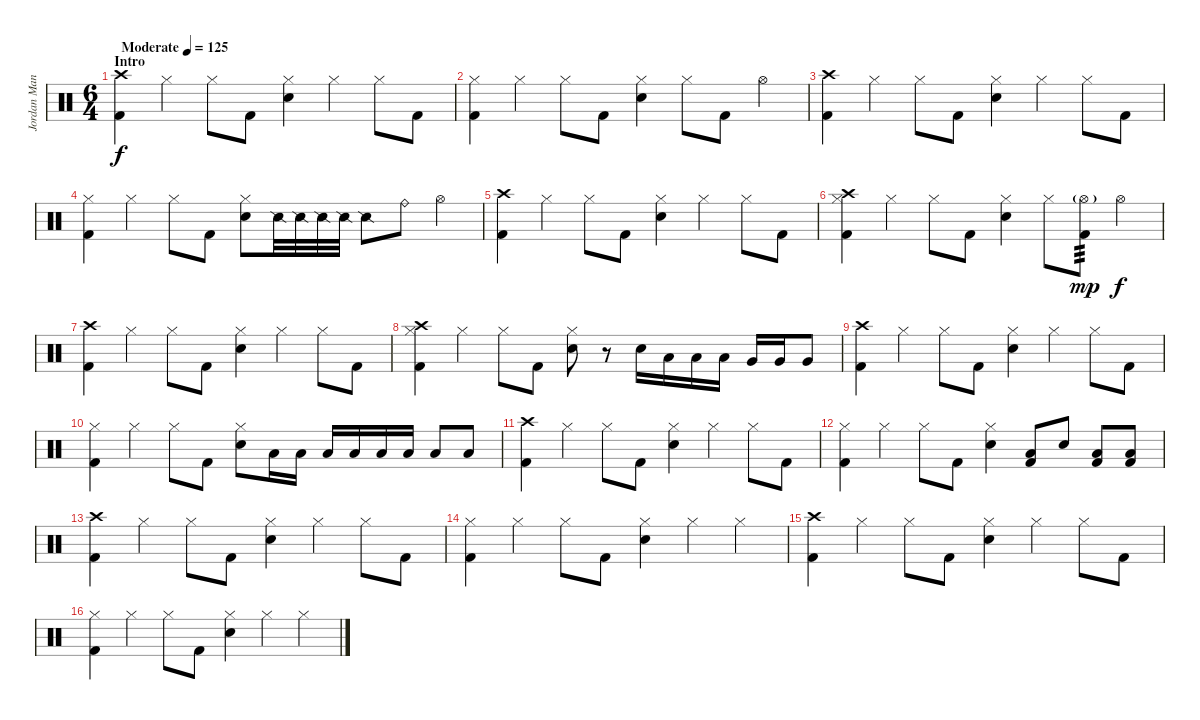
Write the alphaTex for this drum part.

\track ("Jordan Mancino" "Jordan Man") {instrument percussion}
\staff {score}
\articulation defaults
\ts (6 4)
\section ("" "Intro")
\tempo (125 "Moderate")
\clef neutral
\ks c
("Crash high (hit)" "Kick (hit) 2").4{dy f} "Hi-Hat (closed)".4 "Hi-Hat (closed)".8 "Kick (hit) 2".8 ("Hi-Hat (closed)" "Electric Snare (hit)").4 "Hi-Hat (closed)".4 "Hi-Hat (closed)".8 "Kick (hit) 2".8 |
("Hi-Hat (closed)" "Kick (hit) 2").4 "Hi-Hat (closed)".4 "Hi-Hat (closed)".8 "Kick (hit) 2".8 ("Hi-Hat (closed)" "Electric Snare (hit)").4 "Hi-Hat (closed)".8 "Kick (hit) 2".8 "Hi-Hat (open)".4 |
("Crash high (hit)" "Kick (hit) 2").4 "Hi-Hat (closed)".4 "Hi-Hat (closed)".8 "Kick (hit) 2".8 ("Hi-Hat (closed)" "Electric Snare (hit)").4 "Hi-Hat (closed)".4 "Hi-Hat (closed)".8 "Kick (hit) 2".8 |
("Hi-Hat (closed)" "Kick (hit) 2").4 "Hi-Hat (closed)".4 "Hi-Hat (closed)".8 "Kick (hit) 2".8 ("Hi-Hat (closed)" "Electric Snare (hit)").8 "Snare (side stick) 2".32 "Snare (side stick) 2".32 "Snare (side stick) 2".32 "Snare (side stick) 2".32 "Snare (side stick) 2".8 "Ride (bell)".8 "Hi-Hat (open)".4 |
("Crash high (hit)" "Kick (hit) 2").4 "Hi-Hat (closed)".4 "Hi-Hat (closed)".8 "Kick (hit) 2".8 ("Hi-Hat (closed)" "Electric Snare (hit)").4 "Hi-Hat (closed)".4 "Hi-Hat (closed)".8 "Kick (hit) 2".8 |
("Crash high (hit)" "Hi-Hat (closed)" "Kick (hit) 2").4 "Hi-Hat (closed)".4 "Hi-Hat (closed)".8 "Kick (hit) 2".8 ("Hi-Hat (closed)" "Electric Snare (hit)").4 "Hi-Hat (closed)".8 ("Hi-Hat (open)"{g} "Kick (hit) 2").8{tp 3 dy mp} "Hi-Hat (open)".4{dy f} |
("Crash high (hit)" "Kick (hit) 2").4 "Hi-Hat (closed)".4 "Hi-Hat (closed)".8 "Kick (hit) 2".8 ("Hi-Hat (closed)" "Electric Snare (hit)").4 "Hi-Hat (closed)".4 "Hi-Hat (closed)".8 "Kick (hit) 2".8 |
("Crash high (hit)" "Hi-Hat (closed)" "Kick (hit) 2").4 "Hi-Hat (closed)".4 "Hi-Hat (closed)".8 "Kick (hit) 2".8 ("Hi-Hat (closed)" "Electric Snare (hit)").8 r.8 "Electric Snare (hit)".16 "Low Tom (hit)".16 "Low Tom (hit)".16 "Low Tom (hit)".16 "Very Low Tom (hit)".16 "Very Low Tom (hit)".16 "Very Low Tom (hit)".8 |
("Crash high (hit)" "Kick (hit) 2").4 "Hi-Hat (closed)".4 "Hi-Hat (closed)".8 "Kick (hit) 2".8 ("Hi-Hat (closed)" "Electric Snare (hit)").4 "Hi-Hat (closed)".4 "Hi-Hat (closed)".8 "Kick (hit) 2".8 |
("Hi-Hat (closed)" "Kick (hit) 2").4 "Hi-Hat (closed)".4 "Hi-Hat (closed)".8 "Kick (hit) 2".8 ("Hi-Hat (closed)" "Electric Snare (hit)").8 "Low Tom (hit)".16 "Low Tom (hit)".16 "Low Tom (hit)".16 "Low Tom (hit)".16 "Low Tom (hit)".16 "Low Tom (hit)".16 "Low Tom (hit)".8 "Low Tom (hit)".8 |
("Crash high (hit)" "Kick (hit) 2").4 "Hi-Hat (closed)".4 "Hi-Hat (closed)".8 "Kick (hit) 2".8 ("Hi-Hat (closed)" "Electric Snare (hit)").4 "Hi-Hat (closed)".4 "Hi-Hat (closed)".8 "Kick (hit) 2".8 |
("Hi-Hat (closed)" "Kick (hit) 2").4 "Hi-Hat (closed)".4 "Hi-Hat (closed)".8 "Kick (hit) 2".8 ("Hi-Hat (closed)" "Electric Snare (hit)").4 ("Low Tom (hit)" "Kick (hit) 2").8 "Electric Snare (hit)".8 ("Low Tom (hit)" "Kick (hit) 2").8 ("Low Tom (hit)" "Kick (hit) 2").8 |
("Crash high (hit)" "Kick (hit) 2").4 "Hi-Hat (closed)".4 "Hi-Hat (closed)".8 "Kick (hit) 2".8 ("Hi-Hat (closed)" "Electric Snare (hit)").4 "Hi-Hat (closed)".4 "Hi-Hat (closed)".8 "Kick (hit) 2".8 |
("Hi-Hat (closed)" "Kick (hit) 2").4 "Hi-Hat (closed)".4 "Hi-Hat (closed)".8 "Kick (hit) 2".8 ("Hi-Hat (closed)" "Electric Snare (hit)").4 "Hi-Hat (closed)".4 "Hi-Hat (closed)".4 |
("Crash high (hit)" "Kick (hit) 2").4 "Hi-Hat (closed)".4 "Hi-Hat (closed)".8 "Kick (hit) 2".8 ("Hi-Hat (closed)" "Electric Snare (hit)").4 "Hi-Hat (closed)".4 "Hi-Hat (closed)".8 "Kick (hit) 2".8 |
("Hi-Hat (closed)" "Kick (hit) 2").4 "Hi-Hat (closed)".4 "Hi-Hat (closed)".8 "Kick (hit) 2".8 ("Hi-Hat (closed)" "Electric Snare (hit)").4 "Hi-Hat (closed)".4 "Hi-Hat (closed)".4
